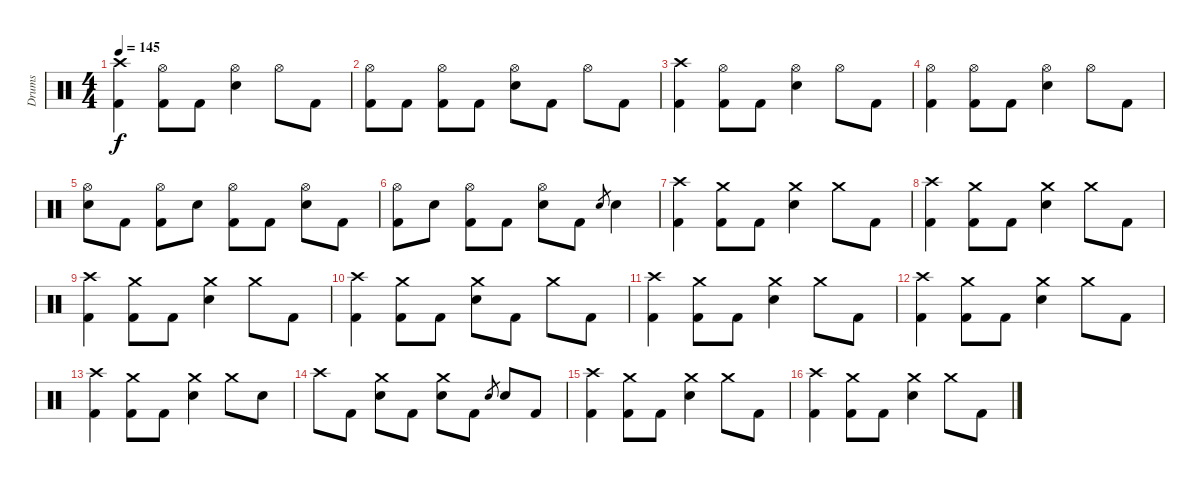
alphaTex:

\track ("Drums" "Drums") {instrument percussion}
\staff {score}
\articulation defaults
\ts (4 4)
\tempo 145
\clef neutral
\ks c
("Crash high (hit)" "Kick (hit) 2").4{dy f} ("Hi-Hat (open)" "Kick (hit) 2").8 "Kick (hit) 2".8 ("Hi-Hat (open)" "Electric Snare (hit)").4 "Hi-Hat (open)".8 "Kick (hit) 2".8 |
("Hi-Hat (open)" "Kick (hit) 2").8 "Kick (hit) 2".8 ("Hi-Hat (open)" "Kick (hit) 2").8 "Kick (hit) 2".8 ("Hi-Hat (open)" "Electric Snare (hit)").8 "Kick (hit) 2".8 "Hi-Hat (open)".8 "Kick (hit) 2".8 |
("Crash high (hit)" "Kick (hit) 2").4 ("Hi-Hat (open)" "Kick (hit) 2").8 "Kick (hit) 2".8 ("Hi-Hat (open)" "Electric Snare (hit)").4 "Hi-Hat (open)".8 "Kick (hit) 2".8 |
("Hi-Hat (open)" "Kick (hit) 2").4 ("Hi-Hat (open)" "Kick (hit) 2").8 "Kick (hit) 2".8 ("Hi-Hat (open)" "Electric Snare (hit)").4 "Hi-Hat (open)".8 "Kick (hit) 2".8 |
("Hi-Hat (open)" "Electric Snare (hit)").8 "Kick (hit) 2".8 ("Hi-Hat (open)" "Kick (hit) 2").8 "Electric Snare (hit)".8 ("Hi-Hat (open)" "Kick (hit) 2").8 "Kick (hit) 2".8 ("Hi-Hat (open)" "Electric Snare (hit)").8 "Kick (hit) 2".8 |
("Hi-Hat (open)" "Kick (hit) 2").8 "Electric Snare (hit)".8 ("Hi-Hat (open)" "Kick (hit) 2").8 "Kick (hit) 2".8 ("Hi-Hat (open)" "Electric Snare (hit)").8 "Kick (hit) 2".8 "Electric Snare (hit)".8{gr} "Electric Snare (hit)".4 |
("Crash high (hit)" "Kick (hit) 2").4 ("Crash medium (hit)" "Kick (hit) 2").8 "Kick (hit) 2".8 ("Crash medium (hit)" "Electric Snare (hit)").4 "Crash medium (hit)".8 "Kick (hit) 2".8 |
("Crash high (hit)" "Kick (hit) 2").4 ("Crash medium (hit)" "Kick (hit) 2").8 "Kick (hit) 2".8 ("Crash medium (hit)" "Electric Snare (hit)").4 "Crash medium (hit)".8 "Kick (hit) 2".8 |
("Crash high (hit)" "Kick (hit) 2").4 ("Crash medium (hit)" "Kick (hit) 2").8 "Kick (hit) 2".8 ("Crash medium (hit)" "Electric Snare (hit)").4 "Crash medium (hit)".8 "Kick (hit) 2".8 |
("Crash high (hit)" "Kick (hit) 2").4 ("Crash medium (hit)" "Kick (hit) 2").8 "Kick (hit) 2".8 ("Crash medium (hit)" "Electric Snare (hit)").8 "Kick (hit) 2".8 "Crash medium (hit)".8 "Kick (hit) 2".8 |
("Crash high (hit)" "Kick (hit) 2").4 ("Crash medium (hit)" "Kick (hit) 2").8 "Kick (hit) 2".8 ("Crash medium (hit)" "Electric Snare (hit)").4 "Crash medium (hit)".8 "Kick (hit) 2".8 |
("Crash high (hit)" "Kick (hit) 2").4 ("Crash medium (hit)" "Kick (hit) 2").8 "Kick (hit) 2".8 ("Crash medium (hit)" "Electric Snare (hit)").4 "Crash medium (hit)".8 "Kick (hit) 2".8 |
("Crash high (hit)" "Kick (hit) 2").4 ("Crash medium (hit)" "Kick (hit) 2").8 "Kick (hit) 2".8 ("Crash medium (hit)" "Electric Snare (hit)").4 "Crash medium (hit)".8 "Electric Snare (hit)".8 |
"Crash high (hit)".8 "Kick (hit) 2".8 ("Crash medium (hit)" "Electric Snare (hit)").8 "Kick (hit) 2".8 ("Crash medium (hit)" "Electric Snare (hit)").8 "Kick (hit) 2".8 "Electric Snare (hit)".8{gr} "Electric Snare (hit)".8 "Kick (hit) 2".8 |
("Crash high (hit)" "Kick (hit) 2").4 ("Crash medium (hit)" "Kick (hit) 2").8 "Kick (hit) 2".8 ("Crash medium (hit)" "Electric Snare (hit)").4 "Crash medium (hit)".8 "Kick (hit) 2".8 |
("Crash high (hit)" "Kick (hit) 2").4 ("Crash medium (hit)" "Kick (hit) 2").8 "Kick (hit) 2".8 ("Crash medium (hit)" "Electric Snare (hit)").4 "Crash medium (hit)".8 "Kick (hit) 2".8
